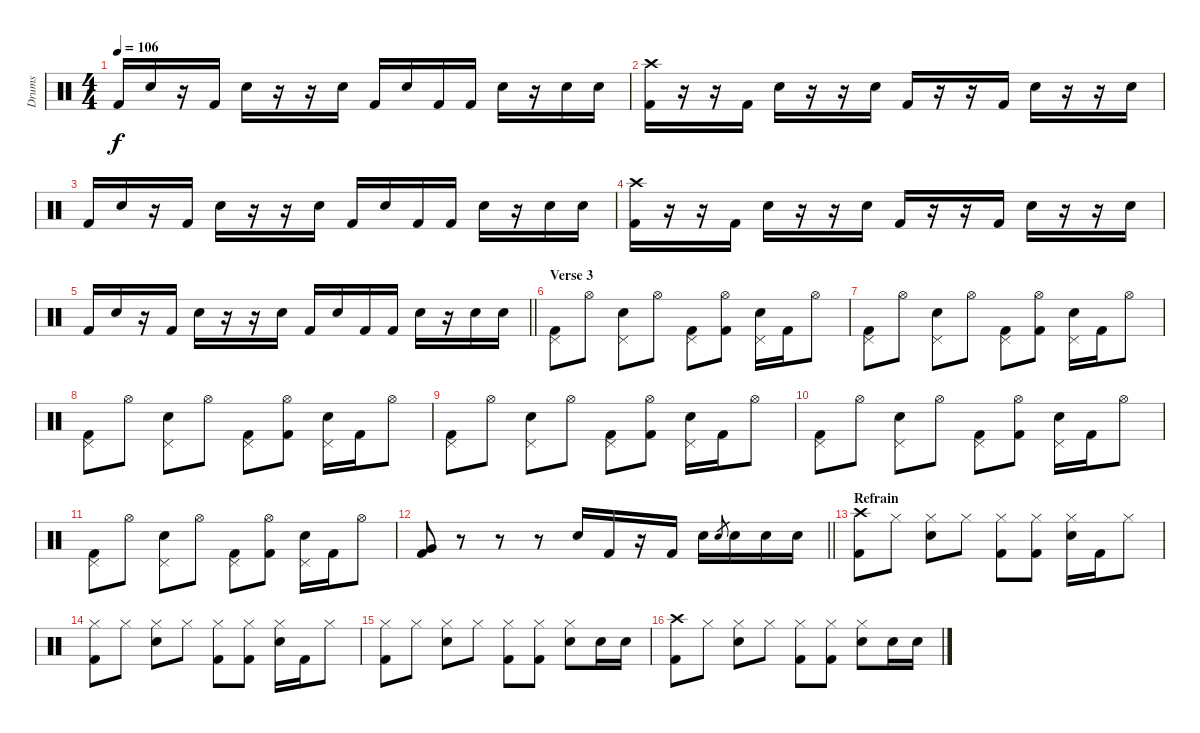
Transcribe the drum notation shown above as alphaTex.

\track ("Drums" "Drums") {instrument percussion}
\staff {score}
\articulation defaults
\ts (4 4)
\tempo 106
\clef neutral
\ks c "Kick (hit) 2".16{dy f} "Electric Snare (hit)".16
r.16 "Kick (hit) 2".16 "Electric Snare (hit)".16 r.16 r.16 "Electric Snare (hit)".16 "Kick (hit) 2".16 "Electric Snare (hit)".16 "Kick (hit) 2".16 "Kick (hit) 2".16 "Electric Snare (hit)".16 r.16 "Electric Snare (hit)".16 "Electric Snare (hit)".16 |
("Crash high (hit)" "Kick (hit) 2").16 r.16 r.16 "Kick (hit) 2".16 "Electric Snare (hit)".16 r.16 r.16 "Electric Snare (hit)".16 "Kick (hit) 2".16 r.16 r.16 "Kick (hit) 2".16 "Electric Snare (hit)".16 r.16 r.16 "Electric Snare (hit)".16 |
"Kick (hit) 2".16 "Electric Snare (hit)".16 r.16 "Kick (hit) 2".16 "Electric Snare (hit)".16 r.16 r.16 "Electric Snare (hit)".16 "Kick (hit) 2".16 "Electric Snare (hit)".16 "Kick (hit) 2".16 "Kick (hit) 2".16 "Electric Snare (hit)".16 r.16 "Electric Snare (hit)".16 "Electric Snare (hit)".16 |
("Crash high (hit)" "Kick (hit) 2").16 r.16 r.16 "Kick (hit) 2".16 "Electric Snare (hit)".16 r.16 r.16 "Electric Snare (hit)".16 "Kick (hit) 2".16 r.16 r.16 "Kick (hit) 2".16 "Electric Snare (hit)".16 r.16 r.16 "Electric Snare (hit)".16 |
\barLineRight lightlight "Kick (hit) 2".16 "Electric Snare (hit)".16
r.16 "Kick (hit) 2".16 "Electric Snare (hit)".16 r.16 r.16 "Electric Snare (hit)".16 "Kick (hit) 2".16 "Electric Snare (hit)".16 "Kick (hit) 2".16 "Kick (hit) 2".16 "Electric Snare (hit)".16 r.16 "Electric Snare (hit)".16 "Electric Snare (hit)".16 |
\section ("" "Verse 3")
("Pedal Hi-Hat (hit)" "Kick (hit) 2").8 "Hi-Hat (open)".8 ("Pedal Hi-Hat (hit)" "Electric Snare (hit)").8 "Hi-Hat (open)".8 ("Pedal Hi-Hat (hit)" "Kick (hit) 2").8 ("Hi-Hat (open)" "Kick (hit) 2").8 ("Pedal Hi-Hat (hit)" "Electric Snare (hit)").16 "Kick (hit) 2".16 "Hi-Hat (open)".8 |
("Pedal Hi-Hat (hit)" "Kick (hit) 2").8 "Hi-Hat (open)".8 ("Pedal Hi-Hat (hit)" "Electric Snare (hit)").8 "Hi-Hat (open)".8 ("Pedal Hi-Hat (hit)" "Kick (hit) 2").8 ("Hi-Hat (open)" "Kick (hit) 2").8 ("Pedal Hi-Hat (hit)" "Electric Snare (hit)").16 "Kick (hit) 2".16 "Hi-Hat (open)".8 |
("Pedal Hi-Hat (hit)" "Kick (hit) 2").8 "Hi-Hat (open)".8 ("Pedal Hi-Hat (hit)" "Electric Snare (hit)").8 "Hi-Hat (open)".8 ("Pedal Hi-Hat (hit)" "Kick (hit) 2").8 ("Hi-Hat (open)" "Kick (hit) 2").8 ("Pedal Hi-Hat (hit)" "Electric Snare (hit)").16 "Kick (hit) 2".16 "Hi-Hat (open)".8 |
("Pedal Hi-Hat (hit)" "Kick (hit) 2").8 "Hi-Hat (open)".8 ("Pedal Hi-Hat (hit)" "Electric Snare (hit)").8 "Hi-Hat (open)".8 ("Pedal Hi-Hat (hit)" "Kick (hit) 2").8 ("Hi-Hat (open)" "Kick (hit) 2").8 ("Pedal Hi-Hat (hit)" "Electric Snare (hit)").16 "Kick (hit) 2".16 "Hi-Hat (open)".8 |
("Pedal Hi-Hat (hit)" "Kick (hit) 2").8 "Hi-Hat (open)".8 ("Pedal Hi-Hat (hit)" "Electric Snare (hit)").8 "Hi-Hat (open)".8 ("Pedal Hi-Hat (hit)" "Kick (hit) 2").8 ("Hi-Hat (open)" "Kick (hit) 2").8 ("Pedal Hi-Hat (hit)" "Electric Snare (hit)").16 "Kick (hit) 2".16 "Hi-Hat (open)".8 |
("Pedal Hi-Hat (hit)" "Kick (hit) 2").8 "Hi-Hat (open)".8 ("Pedal Hi-Hat (hit)" "Electric Snare (hit)").8 "Hi-Hat (open)".8 ("Pedal Hi-Hat (hit)" "Kick (hit) 2").8 ("Hi-Hat (open)" "Kick (hit) 2").8 ("Pedal Hi-Hat (hit)" "Electric Snare (hit)").16 "Kick (hit) 2".16 "Hi-Hat (open)".8 |
\barLineRight lightlight
("Very Low Tom (hit)" "Kick (hit) 2").8 r.8 r.8 r.8 "Snare (hit) 2".16 "Kick (hit) 2".16 r.16 "Kick (hit) 2".16 "Snare (hit) 2".16 "Snare (hit) 2".8{gr} "Snare (hit) 2".16 "Snare (hit) 2".16 "Snare (hit) 2".16 |
\section ("" "Refrain")
("Crash high (hit)" "Kick (hit) 2").8 "Hi-Hat (closed)".8 ("Hi-Hat (closed)" "Electric Snare (hit)").8 "Hi-Hat (closed)".8 ("Hi-Hat (closed)" "Kick (hit) 2").8 ("Hi-Hat (closed)" "Kick (hit) 2").8 ("Hi-Hat (closed)" "Electric Snare (hit)").16 "Kick (hit) 2".16 "Hi-Hat (closed)".8 |
("Hi-Hat (closed)" "Kick (hit) 2").8 "Hi-Hat (closed)".8 ("Hi-Hat (closed)" "Electric Snare (hit)").8 "Hi-Hat (closed)".8 ("Hi-Hat (closed)" "Kick (hit) 2").8 ("Hi-Hat (closed)" "Kick (hit) 2").8 ("Hi-Hat (closed)" "Electric Snare (hit)").16 "Kick (hit) 2".16 "Hi-Hat (closed)".8 |
("Hi-Hat (closed)" "Kick (hit) 2").8 "Hi-Hat (closed)".8 ("Hi-Hat (closed)" "Electric Snare (hit)").8 "Hi-Hat (closed)".8 ("Hi-Hat (closed)" "Kick (hit) 2").8 ("Hi-Hat (closed)" "Kick (hit) 2").8 ("Hi-Hat (closed)" "Electric Snare (hit)").8 "Electric Snare (hit)".16 "Electric Snare (hit)".16 |
("Crash high (hit)" "Kick (hit) 2").8 "Hi-Hat (closed)".8 ("Hi-Hat (closed)" "Electric Snare (hit)").8 "Hi-Hat (closed)".8 ("Hi-Hat (closed)" "Kick (hit) 2").8 ("Hi-Hat (closed)" "Kick (hit) 2").8 ("Hi-Hat (closed)" "Electric Snare (hit)").8 "Electric Snare (hit)".16 "Electric Snare (hit)".16
